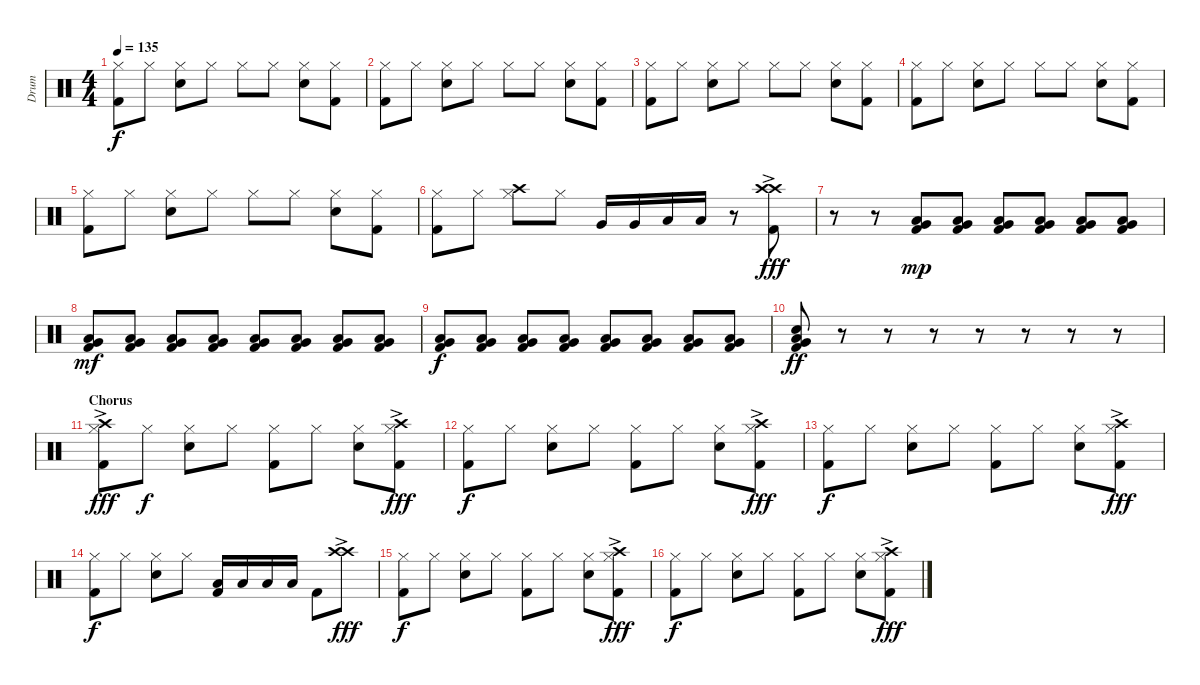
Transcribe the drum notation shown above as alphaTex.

\track ("Drum" "Drum") {instrument percussion}
\staff {score}
\articulation defaults
\ts (4 4)
\tempo 135
\clef neutral
\ks c
("Hi-Hat (closed)" "Kick (hit) 2").8{dy f} "Hi-Hat (closed)".8 ("Snare (hit) 2" "Hi-Hat (closed)").8 "Hi-Hat (closed)".8 "Hi-Hat (closed)".8 "Hi-Hat (closed)".8 ("Snare (hit) 2" "Hi-Hat (closed)").8 ("Hi-Hat (closed)" "Kick (hit) 2").8 |
("Hi-Hat (closed)" "Kick (hit) 2").8 "Hi-Hat (closed)".8 ("Snare (hit) 2" "Hi-Hat (closed)").8 "Hi-Hat (closed)".8 "Hi-Hat (closed)".8 "Hi-Hat (closed)".8 ("Snare (hit) 2" "Hi-Hat (closed)").8 ("Hi-Hat (closed)" "Kick (hit) 2").8 |
("Hi-Hat (closed)" "Kick (hit) 2").8 "Hi-Hat (closed)".8 ("Snare (hit) 2" "Hi-Hat (closed)").8 "Hi-Hat (closed)".8 "Hi-Hat (closed)".8 "Hi-Hat (closed)".8 ("Snare (hit) 2" "Hi-Hat (closed)").8 ("Hi-Hat (closed)" "Kick (hit) 2").8 |
("Hi-Hat (closed)" "Kick (hit) 2").8 "Hi-Hat (closed)".8 ("Snare (hit) 2" "Hi-Hat (closed)").8 "Hi-Hat (closed)".8 "Hi-Hat (closed)".8 "Hi-Hat (closed)".8 ("Snare (hit) 2" "Hi-Hat (closed)").8 ("Hi-Hat (closed)" "Kick (hit) 2").8 |
("Hi-Hat (closed)" "Kick (hit) 2").8 "Hi-Hat (closed)".8 ("Snare (hit) 2" "Hi-Hat (closed)").8 "Hi-Hat (closed)".8 "Hi-Hat (closed)".8 "Hi-Hat (closed)".8 ("Snare (hit) 2" "Hi-Hat (closed)").8 ("Hi-Hat (closed)" "Kick (hit) 2").8 |
("Hi-Hat (closed)" "Kick (hit) 2").8 "Hi-Hat (closed)".8 ("Crash high (hit)" "Hi-Hat (closed)").8 "Hi-Hat (closed)".8 "Very Low Tom (hit)".16 "Very Low Tom (hit)".16 "Low Floor Tom (hit)".16 "Low Floor Tom (hit)".16 r.8 ("Crash high (hit)"{ac} "Crash high (hit)"{ac} "Kick (hit) 2").8{dy fff} |
r.8 r.8 ("Very Low Tom (hit)" "Low Floor Tom (hit)" "Kick (hit) 2").8{dy mp} ("Very Low Tom (hit)" "Low Floor Tom (hit)" "Kick (hit) 2").8 ("Very Low Tom (hit)" "Low Floor Tom (hit)" "Kick (hit) 2").8 ("Very Low Tom (hit)" "Low Floor Tom (hit)" "Kick (hit) 2").8 ("Very Low Tom (hit)" "Low Floor Tom (hit)" "Kick (hit) 2").8 ("Very Low Tom (hit)" "Low Floor Tom (hit)" "Kick (hit) 2").8 |
("Very Low Tom (hit)" "Low Floor Tom (hit)" "Kick (hit) 2").8{dy mf} ("Very Low Tom (hit)" "Low Floor Tom (hit)" "Kick (hit) 2").8 ("Very Low Tom (hit)" "Low Floor Tom (hit)" "Kick (hit) 2").8 ("Very Low Tom (hit)" "Low Floor Tom (hit)" "Kick (hit) 2").8 ("Very Low Tom (hit)" "Low Floor Tom (hit)" "Kick (hit) 2").8 ("Very Low Tom (hit)" "Low Floor Tom (hit)" "Kick (hit) 2").8 ("Very Low Tom (hit)" "Low Floor Tom (hit)" "Kick (hit) 2").8 ("Very Low Tom (hit)" "Low Floor Tom (hit)" "Kick (hit) 2").8 |
("Very Low Tom (hit)" "Low Floor Tom (hit)" "Kick (hit) 2").8{dy f} ("Very Low Tom (hit)" "Low Floor Tom (hit)" "Kick (hit) 2").8 ("Very Low Tom (hit)" "Low Floor Tom (hit)" "Kick (hit) 2").8 ("Very Low Tom (hit)" "Low Floor Tom (hit)" "Kick (hit) 2").8 ("Very Low Tom (hit)" "Low Floor Tom (hit)" "Kick (hit) 2").8 ("Very Low Tom (hit)" "Low Floor Tom (hit)" "Kick (hit) 2").8 ("Very Low Tom (hit)" "Low Floor Tom (hit)" "Kick (hit) 2").8 ("Very Low Tom (hit)" "Low Floor Tom (hit)" "Kick (hit) 2").8 |
("Snare (hit) 2" "Very Low Tom (hit)" "Low Floor Tom (hit)" "Kick (hit) 2").8{dy ff} r.8 r.8 r.8 r.8 r.8 r.8 r.8 |
\section ("" "Chorus")
("Crash high (hit)"{ac} "Hi-Hat (closed)" "Kick (hit) 2").8{dy fff} "Hi-Hat (closed)".8{dy f} ("Snare (hit) 2" "Hi-Hat (closed)").8 "Hi-Hat (closed)".8 ("Hi-Hat (closed)" "Kick (hit) 2").8 "Hi-Hat (closed)".8 ("Snare (hit) 2" "Hi-Hat (closed)").8 ("Crash high (hit)"{ac} "Hi-Hat (closed)" "Kick (hit) 2").8{dy fff} |
("Hi-Hat (closed)" "Kick (hit) 2").8{dy f} "Hi-Hat (closed)".8 ("Snare (hit) 2" "Hi-Hat (closed)").8 "Hi-Hat (closed)".8 ("Hi-Hat (closed)" "Kick (hit) 2").8 "Hi-Hat (closed)".8 ("Snare (hit) 2" "Hi-Hat (closed)").8 ("Crash high (hit)"{ac} "Hi-Hat (closed)" "Kick (hit) 2").8{dy fff} |
("Hi-Hat (closed)" "Kick (hit) 2").8{dy f} "Hi-Hat (closed)".8 ("Snare (hit) 2" "Hi-Hat (closed)").8 "Hi-Hat (closed)".8 ("Hi-Hat (closed)" "Kick (hit) 2").8 "Hi-Hat (closed)".8 ("Snare (hit) 2" "Hi-Hat (closed)").8 ("Crash high (hit)"{ac} "Hi-Hat (closed)" "Kick (hit) 2").8{dy fff} |
("Hi-Hat (closed)" "Kick (hit) 2").8{dy f} "Hi-Hat (closed)".8 ("Snare (hit) 2" "Hi-Hat (closed)").8 "Hi-Hat (closed)".8 ("Low Tom (hit)" "Kick (hit) 2").16 "Low Tom (hit)".16 "Low Tom (hit)".16 "Low Tom (hit)".16 "Kick (hit) 2".8 ("Crash high (hit)"{ac} "Crash high (hit)"{ac}).8{dy fff} |
("Hi-Hat (closed)" "Kick (hit) 2").8{dy f} "Hi-Hat (closed)".8 ("Snare (hit) 2" "Hi-Hat (closed)").8 "Hi-Hat (closed)".8 ("Hi-Hat (closed)" "Kick (hit) 2").8 "Hi-Hat (closed)".8 ("Snare (hit) 2" "Hi-Hat (closed)").8 ("Crash high (hit)"{ac} "Hi-Hat (closed)" "Kick (hit) 2").8{dy fff} |
("Hi-Hat (closed)" "Kick (hit) 2").8{dy f} "Hi-Hat (closed)".8 ("Snare (hit) 2" "Hi-Hat (closed)").8 "Hi-Hat (closed)".8 ("Hi-Hat (closed)" "Kick (hit) 2").8 "Hi-Hat (closed)".8 ("Snare (hit) 2" "Hi-Hat (closed)").8 ("Crash high (hit)"{ac} "Hi-Hat (closed)" "Kick (hit) 2").8{dy fff}
